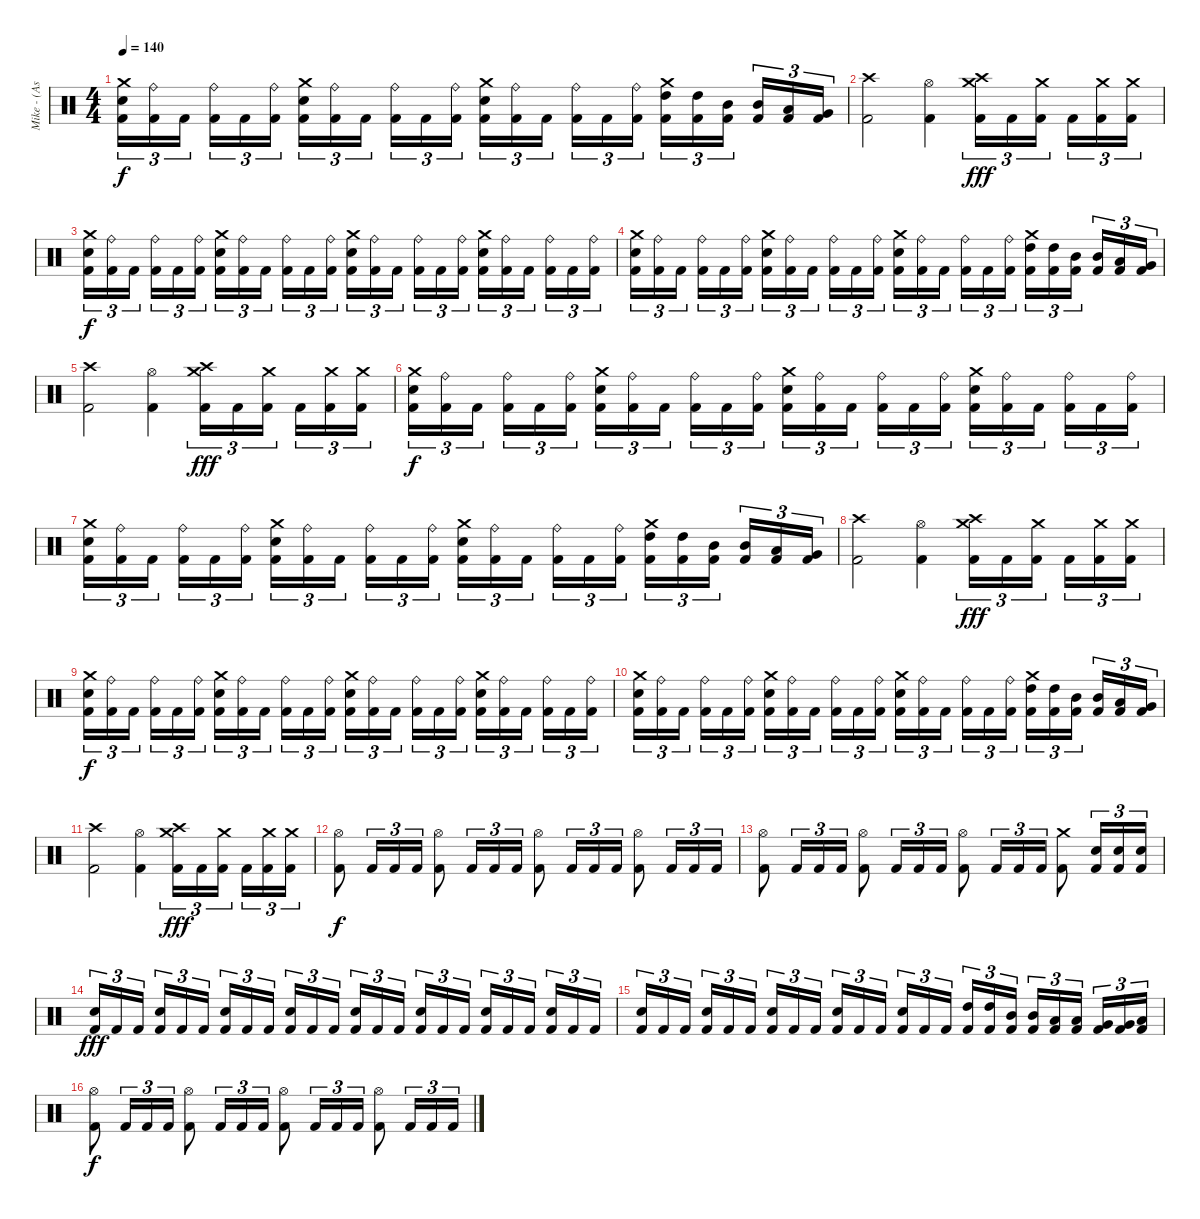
\track ("Mike - (Assault and Battery)" "Mike - (As") {instrument percussion}
\staff {score}
\articulation defaults
\ts (4 4)
\tempo 140
\clef neutral
\ks c
("Crash medium (hit)" "Electric Snare (hit)" "Kick (hit) 2").16{tu (3 2) dy f} ("Ride (bell)" "Kick (hit) 2").16{tu (3 2)} "Kick (hit) 2".16{tu (3 2)} ("Ride (bell)" "Kick (hit) 2").16{tu (3 2)} "Kick (hit) 2".16{tu (3 2)} ("Ride (bell)" "Kick (hit) 2").16{tu (3 2)} ("Crash medium (hit)" "Electric Snare (hit)" "Kick (hit) 2").16{tu (3 2)} ("Ride (bell)" "Kick (hit) 2").16{tu (3 2)} "Kick (hit) 2".16{tu (3 2)} ("Ride (bell)" "Kick (hit) 2").16{tu (3 2)} "Kick (hit) 2".16{tu (3 2)} ("Ride (bell)" "Kick (hit) 2").16{tu (3 2)} ("Crash medium (hit)" "Electric Snare (hit)" "Kick (hit) 2").16{tu (3 2)} ("Ride (bell)" "Kick (hit) 2").16{tu (3 2)} "Kick (hit) 2".16{tu (3 2)} ("Ride (bell)" "Kick (hit) 2").16{tu (3 2)} "Kick (hit) 2".16{tu (3 2)} ("Ride (bell)" "Kick (hit) 2").16{tu (3 2)} ("Crash medium (hit)" "High Tom (hit)" "Kick (hit) 2").16{tu (3 2)} ("High Tom (hit)" "Kick (hit) 2").16{tu (3 2)} ("Mid Tom (hit)" "Kick (hit) 2").16{tu (3 2)} ("Mid Tom (hit)" "Kick (hit) 2").16{tu (3 2)} ("Low Tom (hit)" "Kick (hit) 2").16{tu (3 2)} ("Very Low Tom (hit)" "Kick (hit) 2").16{tu (3 2)} |
("Crash high (hit)" "Kick (hit) 2").2 ("Hi-Hat (open)" "Kick (hit) 2").4 ("Crash medium (hit)" "Crash high (hit)" "Kick (hit) 2").16{tu (3 2) dy fff} "Kick (hit) 2".16{tu (3 2)} ("Crash medium (hit)" "Kick (hit) 2").16{tu (3 2)} "Kick (hit) 2".16{tu (3 2)} ("Crash medium (hit)" "Kick (hit) 2").16{tu (3 2)} ("Crash medium (hit)" "Kick (hit) 2").16{tu (3 2)} |
("Crash medium (hit)" "Electric Snare (hit)" "Kick (hit) 2").16{tu (3 2) dy f} ("Ride (bell)" "Kick (hit) 2").16{tu (3 2)} "Kick (hit) 2".16{tu (3 2)} ("Ride (bell)" "Kick (hit) 2").16{tu (3 2)} "Kick (hit) 2".16{tu (3 2)} ("Ride (bell)" "Kick (hit) 2").16{tu (3 2)} ("Crash medium (hit)" "Electric Snare (hit)" "Kick (hit) 2").16{tu (3 2)} ("Ride (bell)" "Kick (hit) 2").16{tu (3 2)} "Kick (hit) 2".16{tu (3 2)} ("Ride (bell)" "Kick (hit) 2").16{tu (3 2)} "Kick (hit) 2".16{tu (3 2)} ("Ride (bell)" "Kick (hit) 2").16{tu (3 2)} ("Crash medium (hit)" "Electric Snare (hit)" "Kick (hit) 2").16{tu (3 2)} ("Ride (bell)" "Kick (hit) 2").16{tu (3 2)} "Kick (hit) 2".16{tu (3 2)} ("Ride (bell)" "Kick (hit) 2").16{tu (3 2)} "Kick (hit) 2".16{tu (3 2)} ("Ride (bell)" "Kick (hit) 2").16{tu (3 2)} ("Crash medium (hit)" "Electric Snare (hit)" "Kick (hit) 2").16{tu (3 2)} ("Ride (bell)" "Kick (hit) 2").16{tu (3 2)} "Kick (hit) 2".16{tu (3 2)} ("Ride (bell)" "Kick (hit) 2").16{tu (3 2)} "Kick (hit) 2".16{tu (3 2)} ("Ride (bell)" "Kick (hit) 2").16{tu (3 2)} |
("Crash medium (hit)" "Electric Snare (hit)" "Kick (hit) 2").16{tu (3 2)} ("Ride (bell)" "Kick (hit) 2").16{tu (3 2)} "Kick (hit) 2".16{tu (3 2)} ("Ride (bell)" "Kick (hit) 2").16{tu (3 2)} "Kick (hit) 2".16{tu (3 2)} ("Ride (bell)" "Kick (hit) 2").16{tu (3 2)} ("Crash medium (hit)" "Electric Snare (hit)" "Kick (hit) 2").16{tu (3 2)} ("Ride (bell)" "Kick (hit) 2").16{tu (3 2)} "Kick (hit) 2".16{tu (3 2)} ("Ride (bell)" "Kick (hit) 2").16{tu (3 2)} "Kick (hit) 2".16{tu (3 2)} ("Ride (bell)" "Kick (hit) 2").16{tu (3 2)} ("Crash medium (hit)" "Electric Snare (hit)" "Kick (hit) 2").16{tu (3 2)} ("Ride (bell)" "Kick (hit) 2").16{tu (3 2)} "Kick (hit) 2".16{tu (3 2)} ("Ride (bell)" "Kick (hit) 2").16{tu (3 2)} "Kick (hit) 2".16{tu (3 2)} ("Ride (bell)" "Kick (hit) 2").16{tu (3 2)} ("Crash medium (hit)" "High Tom (hit)" "Kick (hit) 2").16{tu (3 2)} ("High Tom (hit)" "Kick (hit) 2").16{tu (3 2)} ("Mid Tom (hit)" "Kick (hit) 2").16{tu (3 2)} ("Mid Tom (hit)" "Kick (hit) 2").16{tu (3 2)} ("Low Tom (hit)" "Kick (hit) 2").16{tu (3 2)} ("Very Low Tom (hit)" "Kick (hit) 2").16{tu (3 2)} |
("Crash high (hit)" "Kick (hit) 2").2 ("Hi-Hat (open)" "Kick (hit) 2").4 ("Crash medium (hit)" "Crash high (hit)" "Kick (hit) 2").16{tu (3 2) dy fff} "Kick (hit) 2".16{tu (3 2)} ("Crash medium (hit)" "Kick (hit) 2").16{tu (3 2)} "Kick (hit) 2".16{tu (3 2)} ("Crash medium (hit)" "Kick (hit) 2").16{tu (3 2)} ("Crash medium (hit)" "Kick (hit) 2").16{tu (3 2)} |
("Crash medium (hit)" "Electric Snare (hit)" "Kick (hit) 2").16{tu (3 2) dy f} ("Ride (bell)" "Kick (hit) 2").16{tu (3 2)} "Kick (hit) 2".16{tu (3 2)} ("Ride (bell)" "Kick (hit) 2").16{tu (3 2)} "Kick (hit) 2".16{tu (3 2)} ("Ride (bell)" "Kick (hit) 2").16{tu (3 2)} ("Crash medium (hit)" "Electric Snare (hit)" "Kick (hit) 2").16{tu (3 2)} ("Ride (bell)" "Kick (hit) 2").16{tu (3 2)} "Kick (hit) 2".16{tu (3 2)} ("Ride (bell)" "Kick (hit) 2").16{tu (3 2)} "Kick (hit) 2".16{tu (3 2)} ("Ride (bell)" "Kick (hit) 2").16{tu (3 2)} ("Crash medium (hit)" "Electric Snare (hit)" "Kick (hit) 2").16{tu (3 2)} ("Ride (bell)" "Kick (hit) 2").16{tu (3 2)} "Kick (hit) 2".16{tu (3 2)} ("Ride (bell)" "Kick (hit) 2").16{tu (3 2)} "Kick (hit) 2".16{tu (3 2)} ("Ride (bell)" "Kick (hit) 2").16{tu (3 2)} ("Crash medium (hit)" "Electric Snare (hit)" "Kick (hit) 2").16{tu (3 2)} ("Ride (bell)" "Kick (hit) 2").16{tu (3 2)} "Kick (hit) 2".16{tu (3 2)} ("Ride (bell)" "Kick (hit) 2").16{tu (3 2)} "Kick (hit) 2".16{tu (3 2)} ("Ride (bell)" "Kick (hit) 2").16{tu (3 2)} |
("Crash medium (hit)" "Electric Snare (hit)" "Kick (hit) 2").16{tu (3 2)} ("Ride (bell)" "Kick (hit) 2").16{tu (3 2)} "Kick (hit) 2".16{tu (3 2)} ("Ride (bell)" "Kick (hit) 2").16{tu (3 2)} "Kick (hit) 2".16{tu (3 2)} ("Ride (bell)" "Kick (hit) 2").16{tu (3 2)} ("Crash medium (hit)" "Electric Snare (hit)" "Kick (hit) 2").16{tu (3 2)} ("Ride (bell)" "Kick (hit) 2").16{tu (3 2)} "Kick (hit) 2".16{tu (3 2)} ("Ride (bell)" "Kick (hit) 2").16{tu (3 2)} "Kick (hit) 2".16{tu (3 2)} ("Ride (bell)" "Kick (hit) 2").16{tu (3 2)} ("Crash medium (hit)" "Electric Snare (hit)" "Kick (hit) 2").16{tu (3 2)} ("Ride (bell)" "Kick (hit) 2").16{tu (3 2)} "Kick (hit) 2".16{tu (3 2)} ("Ride (bell)" "Kick (hit) 2").16{tu (3 2)} "Kick (hit) 2".16{tu (3 2)} ("Ride (bell)" "Kick (hit) 2").16{tu (3 2)} ("Crash medium (hit)" "High Tom (hit)" "Kick (hit) 2").16{tu (3 2)} ("High Tom (hit)" "Kick (hit) 2").16{tu (3 2)} ("Mid Tom (hit)" "Kick (hit) 2").16{tu (3 2)} ("Mid Tom (hit)" "Kick (hit) 2").16{tu (3 2)} ("Low Tom (hit)" "Kick (hit) 2").16{tu (3 2)} ("Very Low Tom (hit)" "Kick (hit) 2").16{tu (3 2)} |
("Crash high (hit)" "Kick (hit) 2").2 ("Hi-Hat (open)" "Kick (hit) 2").4 ("Crash medium (hit)" "Crash high (hit)" "Kick (hit) 2").16{tu (3 2) dy fff} "Kick (hit) 2".16{tu (3 2)} ("Crash medium (hit)" "Kick (hit) 2").16{tu (3 2)} "Kick (hit) 2".16{tu (3 2)} ("Crash medium (hit)" "Kick (hit) 2").16{tu (3 2)} ("Crash medium (hit)" "Kick (hit) 2").16{tu (3 2)} |
("Crash medium (hit)" "Electric Snare (hit)" "Kick (hit) 2").16{tu (3 2) dy f} ("Ride (bell)" "Kick (hit) 2").16{tu (3 2)} "Kick (hit) 2".16{tu (3 2)} ("Ride (bell)" "Kick (hit) 2").16{tu (3 2)} "Kick (hit) 2".16{tu (3 2)} ("Ride (bell)" "Kick (hit) 2").16{tu (3 2)} ("Crash medium (hit)" "Electric Snare (hit)" "Kick (hit) 2").16{tu (3 2)} ("Ride (bell)" "Kick (hit) 2").16{tu (3 2)} "Kick (hit) 2".16{tu (3 2)} ("Ride (bell)" "Kick (hit) 2").16{tu (3 2)} "Kick (hit) 2".16{tu (3 2)} ("Ride (bell)" "Kick (hit) 2").16{tu (3 2)} ("Crash medium (hit)" "Electric Snare (hit)" "Kick (hit) 2").16{tu (3 2)} ("Ride (bell)" "Kick (hit) 2").16{tu (3 2)} "Kick (hit) 2".16{tu (3 2)} ("Ride (bell)" "Kick (hit) 2").16{tu (3 2)} "Kick (hit) 2".16{tu (3 2)} ("Ride (bell)" "Kick (hit) 2").16{tu (3 2)} ("Crash medium (hit)" "Electric Snare (hit)" "Kick (hit) 2").16{tu (3 2)} ("Ride (bell)" "Kick (hit) 2").16{tu (3 2)} "Kick (hit) 2".16{tu (3 2)} ("Ride (bell)" "Kick (hit) 2").16{tu (3 2)} "Kick (hit) 2".16{tu (3 2)} ("Ride (bell)" "Kick (hit) 2").16{tu (3 2)} |
("Crash medium (hit)" "Electric Snare (hit)" "Kick (hit) 2").16{tu (3 2)} ("Ride (bell)" "Kick (hit) 2").16{tu (3 2)} "Kick (hit) 2".16{tu (3 2)} ("Ride (bell)" "Kick (hit) 2").16{tu (3 2)} "Kick (hit) 2".16{tu (3 2)} ("Ride (bell)" "Kick (hit) 2").16{tu (3 2)} ("Crash medium (hit)" "Electric Snare (hit)" "Kick (hit) 2").16{tu (3 2)} ("Ride (bell)" "Kick (hit) 2").16{tu (3 2)} "Kick (hit) 2".16{tu (3 2)} ("Ride (bell)" "Kick (hit) 2").16{tu (3 2)} "Kick (hit) 2".16{tu (3 2)} ("Ride (bell)" "Kick (hit) 2").16{tu (3 2)} ("Crash medium (hit)" "Electric Snare (hit)" "Kick (hit) 2").16{tu (3 2)} ("Ride (bell)" "Kick (hit) 2").16{tu (3 2)} "Kick (hit) 2".16{tu (3 2)} ("Ride (bell)" "Kick (hit) 2").16{tu (3 2)} "Kick (hit) 2".16{tu (3 2)} ("Ride (bell)" "Kick (hit) 2").16{tu (3 2)} ("Crash medium (hit)" "High Tom (hit)" "Kick (hit) 2").16{tu (3 2)} ("High Tom (hit)" "Kick (hit) 2").16{tu (3 2)} ("Mid Tom (hit)" "Kick (hit) 2").16{tu (3 2)} ("Mid Tom (hit)" "Kick (hit) 2").16{tu (3 2)} ("Low Tom (hit)" "Kick (hit) 2").16{tu (3 2)} ("Very Low Tom (hit)" "Kick (hit) 2").16{tu (3 2)} |
("Crash high (hit)" "Kick (hit) 2").2 ("Hi-Hat (open)" "Kick (hit) 2").4 ("Crash medium (hit)" "Crash high (hit)" "Kick (hit) 2").16{tu (3 2) dy fff} "Kick (hit) 2".16{tu (3 2)} ("Crash medium (hit)" "Kick (hit) 2").16{tu (3 2)} "Kick (hit) 2".16{tu (3 2)} ("Crash medium (hit)" "Kick (hit) 2").16{tu (3 2)} ("Crash medium (hit)" "Kick (hit) 2").16{tu (3 2)} |
("Hi-Hat (open)" "Kick (hit) 2").8{dy f} "Kick (hit) 2".16{tu (3 2)} "Kick (hit) 2".16{tu (3 2)} "Kick (hit) 2".16{tu (3 2)} ("Hi-Hat (open)" "Kick (hit) 2").8 "Kick (hit) 2".16{tu (3 2)} "Kick (hit) 2".16{tu (3 2)} "Kick (hit) 2".16{tu (3 2)} ("Hi-Hat (open)" "Kick (hit) 2").8 "Kick (hit) 2".16{tu (3 2)} "Kick (hit) 2".16{tu (3 2)} "Kick (hit) 2".16{tu (3 2)} ("Hi-Hat (open)" "Kick (hit) 2").8 "Kick (hit) 2".16{tu (3 2)} "Kick (hit) 2".16{tu (3 2)} "Kick (hit) 2".16{tu (3 2)} |
("Hi-Hat (open)" "Kick (hit) 2").8 "Kick (hit) 2".16{tu (3 2)} "Kick (hit) 2".16{tu (3 2)} "Kick (hit) 2".16{tu (3 2)} ("Hi-Hat (open)" "Kick (hit) 2").8 "Kick (hit) 2".16{tu (3 2)} "Kick (hit) 2".16{tu (3 2)} "Kick (hit) 2".16{tu (3 2)} ("Hi-Hat (open)" "Kick (hit) 2").8 "Kick (hit) 2".16{tu (3 2)} "Kick (hit) 2".16{tu (3 2)} "Kick (hit) 2".16{tu (3 2)} ("Crash medium (hit)" "Kick (hit) 2").8 ("Electric Snare (hit)" "Kick (hit) 2").16{tu (3 2)} ("Electric Snare (hit)" "Kick (hit) 2").16{tu (3 2)} ("Electric Snare (hit)" "Kick (hit) 2").16{tu (3 2)} |
("Electric Snare (hit)" "Kick (hit) 2").16{tu (3 2) dy fff} "Kick (hit) 2".16{tu (3 2)} "Kick (hit) 2".16{tu (3 2)} ("Electric Snare (hit)" "Kick (hit) 2").16{tu (3 2)} "Kick (hit) 2".16{tu (3 2)} "Kick (hit) 2".16{tu (3 2)} ("Electric Snare (hit)" "Kick (hit) 2").16{tu (3 2)} "Kick (hit) 2".16{tu (3 2)} "Kick (hit) 2".16{tu (3 2)} ("Electric Snare (hit)" "Kick (hit) 2").16{tu (3 2)} "Kick (hit) 2".16{tu (3 2)} "Kick (hit) 2".16{tu (3 2)} ("Electric Snare (hit)" "Kick (hit) 2").16{tu (3 2)} "Kick (hit) 2".16{tu (3 2)} "Kick (hit) 2".16{tu (3 2)} ("Electric Snare (hit)" "Kick (hit) 2").16{tu (3 2)} "Kick (hit) 2".16{tu (3 2)} "Kick (hit) 2".16{tu (3 2)} ("Electric Snare (hit)" "Kick (hit) 2").16{tu (3 2)} "Kick (hit) 2".16{tu (3 2)} "Kick (hit) 2".16{tu (3 2)} ("Electric Snare (hit)" "Kick (hit) 2").16{tu (3 2)} "Kick (hit) 2".16{tu (3 2)} "Kick (hit) 2".16{tu (3 2)} |
("Electric Snare (hit)" "Kick (hit) 2").16{tu (3 2)} "Kick (hit) 2".16{tu (3 2)} "Kick (hit) 2".16{tu (3 2)} ("Electric Snare (hit)" "Kick (hit) 2").16{tu (3 2)} "Kick (hit) 2".16{tu (3 2)} "Kick (hit) 2".16{tu (3 2)} ("Electric Snare (hit)" "Kick (hit) 2").16{tu (3 2)} "Kick (hit) 2".16{tu (3 2)} "Kick (hit) 2".16{tu (3 2)} ("Electric Snare (hit)" "Kick (hit) 2").16{tu (3 2)} "Kick (hit) 2".16{tu (3 2)} "Kick (hit) 2".16{tu (3 2)} ("Electric Snare (hit)" "Kick (hit) 2").16{tu (3 2)} "Kick (hit) 2".16{tu (3 2)} "Kick (hit) 2".16{tu (3 2)} ("High Tom (hit)" "Kick (hit) 2").16{tu (3 2)} ("High Tom (hit)" "Kick (hit) 2").16{tu (3 2)} ("Mid Tom (hit)" "Kick (hit) 2").16{tu (3 2)} ("Mid Tom (hit)" "Kick (hit) 2").16{tu (3 2)} ("Low Tom (hit)" "Kick (hit) 2").16{tu (3 2)} ("Low Tom (hit)" "Kick (hit) 2").16{tu (3 2)} ("Very Low Tom (hit)" "Kick (hit) 2").16{tu (3 2)} ("Very Low Tom (hit)" "Kick (hit) 2").16{tu (3 2)} ("Low Floor Tom (hit)" "Kick (hit) 2").16{tu (3 2)} |
("Hi-Hat (open)" "Kick (hit) 2").8{dy f} "Kick (hit) 2".16{tu (3 2)} "Kick (hit) 2".16{tu (3 2)} "Kick (hit) 2".16{tu (3 2)} ("Hi-Hat (open)" "Kick (hit) 2").8 "Kick (hit) 2".16{tu (3 2)} "Kick (hit) 2".16{tu (3 2)} "Kick (hit) 2".16{tu (3 2)} ("Hi-Hat (open)" "Kick (hit) 2").8 "Kick (hit) 2".16{tu (3 2)} "Kick (hit) 2".16{tu (3 2)} "Kick (hit) 2".16{tu (3 2)} ("Hi-Hat (open)" "Kick (hit) 2").8 "Kick (hit) 2".16{tu (3 2)} "Kick (hit) 2".16{tu (3 2)} "Kick (hit) 2".16{tu (3 2)}
